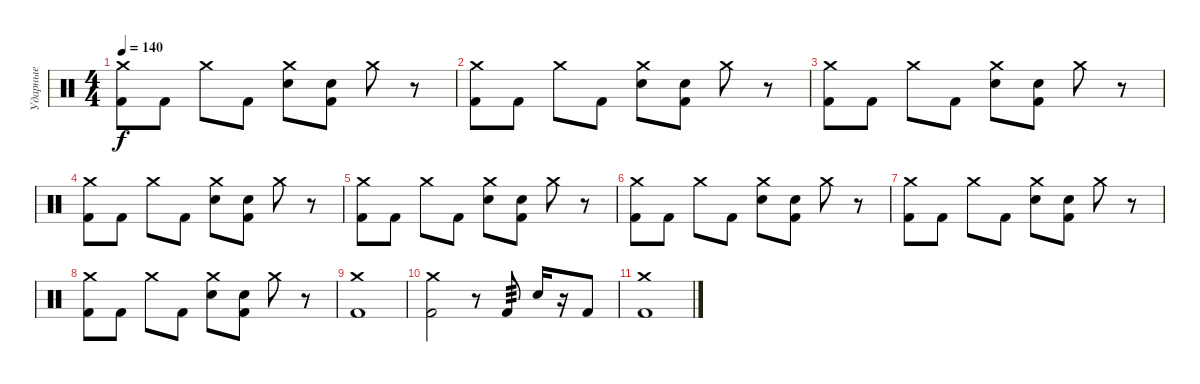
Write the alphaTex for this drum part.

\track ("Ударные" "Ударные") {instrument percussion}
\staff {score}
\articulation defaults
\ts (4 4)
\tempo 140
\clef neutral
\ks c
("Crash medium (hit)" "Kick (hit) 2").8{dy f} "Kick (hit) 2".8 "Crash medium (hit)".8 "Kick (hit) 2".8 ("Crash medium (hit)" "Electric Snare (hit)").8 ("Snare (hit)" "Kick (hit) 2").8 "Crash medium (hit)".8 r.8 |
("Crash medium (hit)" "Kick (hit) 2").8 "Kick (hit) 2".8 "Crash medium (hit)".8 "Kick (hit) 2".8 ("Crash medium (hit)" "Electric Snare (hit)").8 ("Snare (hit)" "Kick (hit) 2").8 "Crash medium (hit)".8 r.8 |
("Crash medium (hit)" "Kick (hit) 2").8 "Kick (hit) 2".8 "Crash medium (hit)".8 "Kick (hit) 2".8 ("Crash medium (hit)" "Electric Snare (hit)").8 ("Snare (hit)" "Kick (hit) 2").8 "Crash medium (hit)".8 r.8 |
("Crash medium (hit)" "Kick (hit) 2").8 "Kick (hit) 2".8 "Crash medium (hit)".8 "Kick (hit) 2".8 ("Crash medium (hit)" "Electric Snare (hit)").8 ("Snare (hit)" "Kick (hit) 2").8 "Crash medium (hit)".8 r.8 |
("Crash medium (hit)" "Kick (hit) 2").8 "Kick (hit) 2".8 "Crash medium (hit)".8 "Kick (hit) 2".8 ("Crash medium (hit)" "Electric Snare (hit)").8 ("Snare (hit)" "Kick (hit) 2").8 "Crash medium (hit)".8 r.8 |
("Crash medium (hit)" "Kick (hit) 2").8 "Kick (hit) 2".8 "Crash medium (hit)".8 "Kick (hit) 2".8 ("Crash medium (hit)" "Electric Snare (hit)").8 ("Snare (hit)" "Kick (hit) 2").8 "Crash medium (hit)".8 r.8 |
("Crash medium (hit)" "Kick (hit) 2").8 "Kick (hit) 2".8 "Crash medium (hit)".8 "Kick (hit) 2".8 ("Crash medium (hit)" "Electric Snare (hit)").8 ("Snare (hit)" "Kick (hit) 2").8 "Crash medium (hit)".8 r.8 |
("Crash medium (hit)" "Kick (hit) 2").8 "Kick (hit) 2".8 "Crash medium (hit)".8 "Kick (hit) 2".8 ("Crash medium (hit)" "Electric Snare (hit)").8 ("Snare (hit)" "Kick (hit) 2").8 "Crash medium (hit)".8 r.8 |
("Crash medium (hit)" "Kick (hit) 2").1 |
("Crash medium (hit)" "Kick (hit) 2").2 r.8 "Kick (hit) 2".8{tp 3} "Electric Snare (hit)".16 r.16 "Kick (hit) 2".8 |
("Crash medium (hit)" "Kick (hit) 2").1
